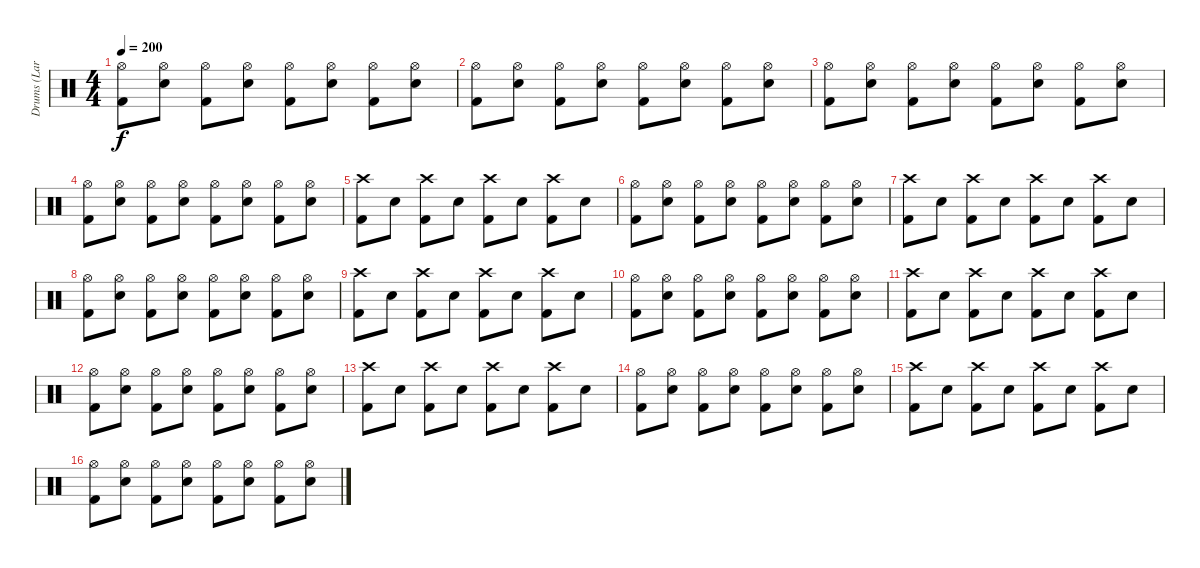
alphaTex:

\track ("Drums (Lars Ulrich)" "Drums (Lar") {instrument percussion}
\staff {score}
\articulation defaults
\ts (4 4)
\tempo 200
\clef neutral
\ks c
("Hi-Hat (open)" "Kick (hit) 2").8{dy f} ("Hi-Hat (open)" "Snare (hit) 2").8 ("Hi-Hat (open)" "Kick (hit) 2").8 ("Hi-Hat (open)" "Snare (hit) 2").8 ("Hi-Hat (open)" "Kick (hit) 2").8 ("Hi-Hat (open)" "Snare (hit) 2").8 ("Hi-Hat (open)" "Kick (hit) 2").8 ("Hi-Hat (open)" "Snare (hit) 2").8 |
("Hi-Hat (open)" "Kick (hit) 2").8 ("Hi-Hat (open)" "Snare (hit) 2").8 ("Hi-Hat (open)" "Kick (hit) 2").8 ("Hi-Hat (open)" "Snare (hit) 2").8 ("Hi-Hat (open)" "Kick (hit) 2").8 ("Hi-Hat (open)" "Snare (hit) 2").8 ("Hi-Hat (open)" "Kick (hit) 2").8 ("Hi-Hat (open)" "Snare (hit) 2").8 |
("Hi-Hat (open)" "Kick (hit) 2").8 ("Hi-Hat (open)" "Snare (hit) 2").8 ("Hi-Hat (open)" "Kick (hit) 2").8 ("Hi-Hat (open)" "Snare (hit) 2").8 ("Hi-Hat (open)" "Kick (hit) 2").8 ("Hi-Hat (open)" "Snare (hit) 2").8 ("Hi-Hat (open)" "Kick (hit) 2").8 ("Hi-Hat (open)" "Snare (hit) 2").8 |
("Hi-Hat (open)" "Kick (hit) 2").8 ("Hi-Hat (open)" "Snare (hit) 2").8 ("Hi-Hat (open)" "Kick (hit) 2").8 ("Hi-Hat (open)" "Snare (hit) 2").8 ("Hi-Hat (open)" "Kick (hit) 2").8 ("Hi-Hat (open)" "Snare (hit) 2").8 ("Hi-Hat (open)" "Kick (hit) 2").8 ("Hi-Hat (open)" "Snare (hit) 2").8 |
("Crash high (hit)" "Kick (hit) 2").8 "Snare (hit) 2".8 ("Crash high (hit)" "Kick (hit) 2").8 "Snare (hit) 2".8 ("Crash high (hit)" "Kick (hit) 2").8 "Snare (hit) 2".8 ("Crash high (hit)" "Kick (hit) 2").8 "Snare (hit) 2".8 |
("Hi-Hat (open)" "Kick (hit) 2").8 ("Hi-Hat (open)" "Snare (hit) 2").8 ("Hi-Hat (open)" "Kick (hit) 2").8 ("Hi-Hat (open)" "Snare (hit) 2").8 ("Hi-Hat (open)" "Kick (hit) 2").8 ("Hi-Hat (open)" "Snare (hit) 2").8 ("Hi-Hat (open)" "Kick (hit) 2").8 ("Hi-Hat (open)" "Snare (hit) 2").8 |
("Crash high (hit)" "Kick (hit) 2").8 "Snare (hit) 2".8 ("Crash high (hit)" "Kick (hit) 2").8 "Snare (hit) 2".8 ("Crash high (hit)" "Kick (hit) 2").8 "Snare (hit) 2".8 ("Crash high (hit)" "Kick (hit) 2").8 "Snare (hit) 2".8 |
("Hi-Hat (open)" "Kick (hit) 2").8 ("Hi-Hat (open)" "Snare (hit) 2").8 ("Hi-Hat (open)" "Kick (hit) 2").8 ("Hi-Hat (open)" "Snare (hit) 2").8 ("Hi-Hat (open)" "Kick (hit) 2").8 ("Hi-Hat (open)" "Snare (hit) 2").8 ("Hi-Hat (open)" "Kick (hit) 2").8 ("Hi-Hat (open)" "Snare (hit) 2").8 |
("Crash high (hit)" "Kick (hit) 2").8 "Snare (hit) 2".8 ("Crash high (hit)" "Kick (hit) 2").8 "Snare (hit) 2".8 ("Crash high (hit)" "Kick (hit) 2").8 "Snare (hit) 2".8 ("Crash high (hit)" "Kick (hit) 2").8 "Snare (hit) 2".8 |
("Hi-Hat (open)" "Kick (hit) 2").8 ("Hi-Hat (open)" "Snare (hit) 2").8 ("Hi-Hat (open)" "Kick (hit) 2").8 ("Hi-Hat (open)" "Snare (hit) 2").8 ("Hi-Hat (open)" "Kick (hit) 2").8 ("Hi-Hat (open)" "Snare (hit) 2").8 ("Hi-Hat (open)" "Kick (hit) 2").8 ("Hi-Hat (open)" "Snare (hit) 2").8 |
("Crash high (hit)" "Kick (hit) 2").8 "Snare (hit) 2".8 ("Crash high (hit)" "Kick (hit) 2").8 "Snare (hit) 2".8 ("Crash high (hit)" "Kick (hit) 2").8 "Snare (hit) 2".8 ("Crash high (hit)" "Kick (hit) 2").8 "Snare (hit) 2".8 |
("Hi-Hat (open)" "Kick (hit) 2").8 ("Hi-Hat (open)" "Snare (hit) 2").8 ("Hi-Hat (open)" "Kick (hit) 2").8 ("Hi-Hat (open)" "Snare (hit) 2").8 ("Hi-Hat (open)" "Kick (hit) 2").8 ("Hi-Hat (open)" "Snare (hit) 2").8 ("Hi-Hat (open)" "Kick (hit) 2").8 ("Hi-Hat (open)" "Snare (hit) 2").8 |
("Crash high (hit)" "Kick (hit) 2").8 "Snare (hit) 2".8 ("Crash high (hit)" "Kick (hit) 2").8 "Snare (hit) 2".8 ("Crash high (hit)" "Kick (hit) 2").8 "Snare (hit) 2".8 ("Crash high (hit)" "Kick (hit) 2").8 "Snare (hit) 2".8 |
("Hi-Hat (open)" "Kick (hit) 2").8 ("Hi-Hat (open)" "Snare (hit) 2").8 ("Hi-Hat (open)" "Kick (hit) 2").8 ("Hi-Hat (open)" "Snare (hit) 2").8 ("Hi-Hat (open)" "Kick (hit) 2").8 ("Hi-Hat (open)" "Snare (hit) 2").8 ("Hi-Hat (open)" "Kick (hit) 2").8 ("Hi-Hat (open)" "Snare (hit) 2").8 |
("Crash high (hit)" "Kick (hit) 2").8 "Snare (hit) 2".8 ("Crash high (hit)" "Kick (hit) 2").8 "Snare (hit) 2".8 ("Crash high (hit)" "Kick (hit) 2").8 "Snare (hit) 2".8 ("Crash high (hit)" "Kick (hit) 2").8 "Snare (hit) 2".8 |
("Hi-Hat (open)" "Kick (hit) 2").8 ("Hi-Hat (open)" "Snare (hit) 2").8 ("Hi-Hat (open)" "Kick (hit) 2").8 ("Hi-Hat (open)" "Snare (hit) 2").8 ("Hi-Hat (open)" "Kick (hit) 2").8 ("Hi-Hat (open)" "Snare (hit) 2").8 ("Hi-Hat (open)" "Kick (hit) 2").8 ("Hi-Hat (open)" "Snare (hit) 2").8
